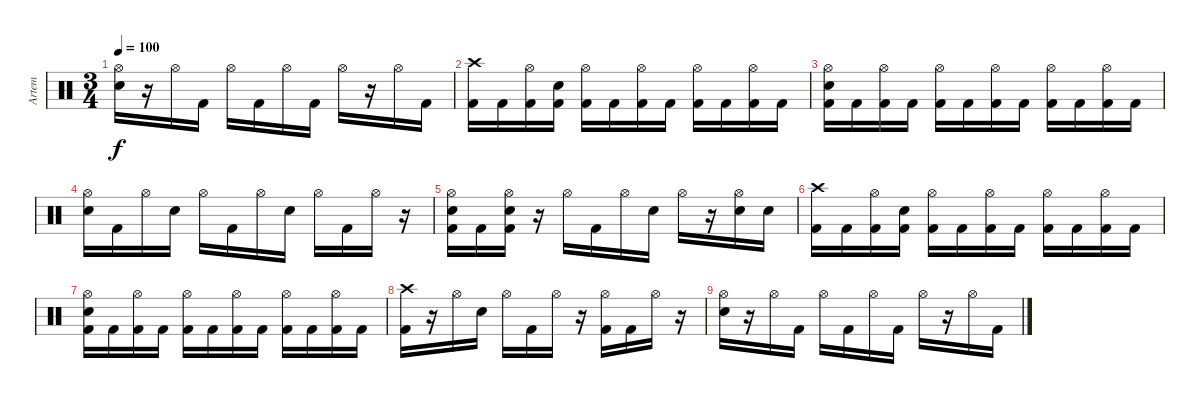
\track ("Artem" "Artem") {instrument percussion}
\staff {score}
\articulation defaults
\ts (3 4)
\tempo 100
\clef neutral
\ks c
("Hi-Hat (open)" "Snare (hit) 2").16{dy f} r.16 "Hi-Hat (open)".16 "Kick (hit) 2".16 "Hi-Hat (open)".16 "Kick (hit) 2".16 "Hi-Hat (open)".16 "Kick (hit) 2".16 "Hi-Hat (open)".16 r.16 "Hi-Hat (open)".16 "Kick (hit) 2".16 |
("Kick (hit) 2" "Crash high (hit)").16 "Kick (hit) 2".16 ("Hi-Hat (open)" "Kick (hit) 2").16 ("Snare (hit) 2" "Kick (hit) 2").16 ("Hi-Hat (open)" "Kick (hit) 2").16 "Kick (hit) 2".16 ("Hi-Hat (open)" "Kick (hit) 2").16 "Kick (hit) 2".16 ("Hi-Hat (open)" "Kick (hit) 2").16 "Kick (hit) 2".16 ("Hi-Hat (open)" "Kick (hit) 2").16 "Kick (hit) 2".16 |
("Kick (hit) 2" "Snare (hit) 2" "Hi-Hat (open)").16 "Kick (hit) 2".16 ("Kick (hit) 2" "Hi-Hat (open)").16 "Kick (hit) 2".16 ("Hi-Hat (open)" "Kick (hit) 2").16 "Kick (hit) 2".16 ("Hi-Hat (open)" "Kick (hit) 2").16 "Kick (hit) 2".16 ("Hi-Hat (open)" "Kick (hit) 2").16 "Kick (hit) 2".16 ("Hi-Hat (open)" "Kick (hit) 2").16 "Kick (hit) 2".16 |
("Hi-Hat (open)" "Snare (hit) 2").16 "Kick (hit) 2".16 "Hi-Hat (open)".16 "Snare (hit) 2".16 "Hi-Hat (open)".16 "Kick (hit) 2".16 "Hi-Hat (open)".16 "Snare (hit) 2".16 "Hi-Hat (open)".16 "Kick (hit) 2".16 "Hi-Hat (open)".16 r.16 |
("Hi-Hat (open)" "Kick (hit) 2" "Snare (hit) 2").16 "Kick (hit) 2".16 ("Hi-Hat (open)" "Kick (hit) 2" "Snare (hit) 2").16 r.16 "Hi-Hat (open)".16 "Kick (hit) 2".16 "Hi-Hat (open)".16 "Snare (hit) 2".16 "Hi-Hat (open)".16 r.16 ("Hi-Hat (open)" "Snare (hit) 2").16 "Snare (hit) 2".16 |
("Kick (hit) 2" "Crash high (hit)").16 "Kick (hit) 2".16 ("Hi-Hat (open)" "Kick (hit) 2").16 ("Snare (hit) 2" "Kick (hit) 2").16 ("Hi-Hat (open)" "Kick (hit) 2").16 "Kick (hit) 2".16 ("Hi-Hat (open)" "Kick (hit) 2").16 "Kick (hit) 2".16 ("Hi-Hat (open)" "Kick (hit) 2").16 "Kick (hit) 2".16 ("Hi-Hat (open)" "Kick (hit) 2").16 "Kick (hit) 2".16 |
("Kick (hit) 2" "Snare (hit) 2" "Hi-Hat (open)").16 "Kick (hit) 2".16 ("Kick (hit) 2" "Hi-Hat (open)").16 "Kick (hit) 2".16 ("Hi-Hat (open)" "Kick (hit) 2").16 "Kick (hit) 2".16 ("Hi-Hat (open)" "Kick (hit) 2").16 "Kick (hit) 2".16 ("Hi-Hat (open)" "Kick (hit) 2").16 "Kick (hit) 2".16 ("Hi-Hat (open)" "Kick (hit) 2").16 "Kick (hit) 2".16 |
("Kick (hit) 2" "Crash high (hit)").16 r.16 "Hi-Hat (open)".16 "Snare (hit) 2".16 "Hi-Hat (open)".16 "Kick (hit) 2".16 "Hi-Hat (open)".16 r.16 ("Hi-Hat (open)" "Kick (hit) 2").16 "Kick (hit) 2".16 "Hi-Hat (open)".16 r.16 |
("Hi-Hat (open)" "Snare (hit) 2").16 r.16 "Hi-Hat (open)".16 "Kick (hit) 2".16 "Hi-Hat (open)".16 "Kick (hit) 2".16 "Hi-Hat (open)".16 "Kick (hit) 2".16 "Hi-Hat (open)".16 r.16 "Hi-Hat (open)".16 "Kick (hit) 2".16
